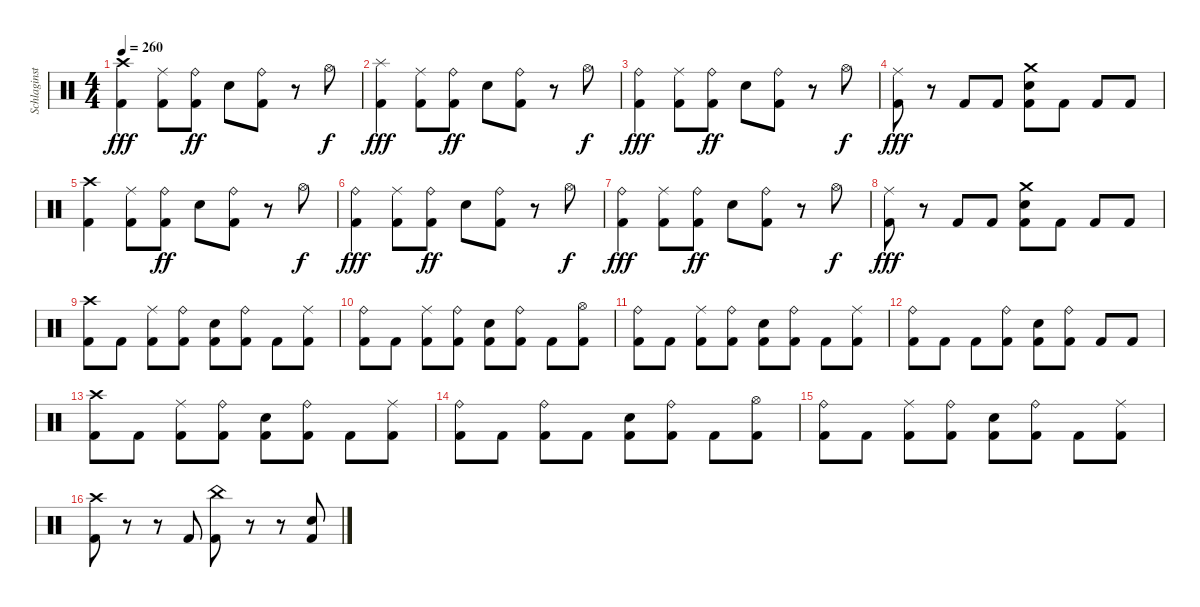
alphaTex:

\track ("Schlaginstrumente - Auswahl" "Schlaginst") {instrument percussion}
\staff {score}
\articulation defaults
\ts (4 4)
\tempo 260
\clef neutral
\ks c
("Crash high (hit)" "Kick (hit) 2").4{dy fff} ("Ride (middle)" "Kick (hit) 2").8 ("Ride (bell)" "Kick (hit) 2").8{dy ff} "Snare (hit) 2".8 ("Ride (bell)" "Kick (hit) 2").8 r.8 "Hi-Hat (open)".8{dy f} |
("Splash (hit)" "Kick (hit) 2").4{dy fff} ("Ride (middle)" "Kick (hit) 2").8 ("Ride (bell)" "Kick (hit) 2").8{dy ff} "Snare (hit) 2".8 ("Ride (bell)" "Kick (hit) 2").8 r.8 "Hi-Hat (open)".8{dy f} |
("Ride (bell)" "Kick (hit) 2").4{dy fff} ("Ride (middle)" "Kick (hit) 2").8 ("Ride (bell)" "Kick (hit) 2").8{dy ff} "Snare (hit) 2".8 ("Ride (bell)" "Kick (hit) 2").8 r.8 "Hi-Hat (open)".8{dy f} |
("Ride (middle)" "Kick (hit) 2").8{dy fff} r.8 "Kick (hit) 2".8 "Kick (hit) 2".8 ("Crash medium (hit)" "Snare (hit) 2" "Kick (hit) 2").8 "Kick (hit) 2".8 "Kick (hit) 2".8 "Kick (hit) 2".8 |
("Crash high (hit)" "Kick (hit) 2").4 ("Ride (middle)" "Kick (hit) 2").8 ("Ride (bell)" "Kick (hit) 2").8{dy ff} "Snare (hit) 2".8 ("Ride (bell)" "Kick (hit) 2").8 r.8 "Hi-Hat (open)".8{dy f} |
("Ride (bell)" "Kick (hit) 2").4{dy fff} ("Ride (middle)" "Kick (hit) 2").8 ("Ride (bell)" "Kick (hit) 2").8{dy ff} "Snare (hit) 2".8 ("Ride (bell)" "Kick (hit) 2").8 r.8 "Hi-Hat (open)".8{dy f} |
("Ride (bell)" "Kick (hit) 2").4{dy fff} ("Ride (middle)" "Kick (hit) 2").8 ("Ride (bell)" "Kick (hit) 2").8{dy ff} "Snare (hit) 2".8 ("Ride (bell)" "Kick (hit) 2").8 r.8 "Hi-Hat (open)".8{dy f} |
("Ride (middle)" "Kick (hit) 2").8{dy fff} r.8 "Kick (hit) 2".8 "Kick (hit) 2".8 ("Crash medium (hit)" "Snare (hit) 2" "Kick (hit) 2").8 "Kick (hit) 2".8 "Kick (hit) 2".8 "Kick (hit) 2".8 |
("Crash high (hit)" "Kick (hit) 2").8 "Kick (hit) 2".8 ("Ride (middle)" "Kick (hit) 2").8 ("Ride (bell)" "Kick (hit) 2").8 ("Snare (hit) 2" "Kick (hit) 2").8 ("Ride (bell)" "Kick (hit) 2").8 "Kick (hit) 2".8 ("Ride (middle)" "Kick (hit) 2").8 |
("Ride (bell)" "Kick (hit) 2").8 "Kick (hit) 2".8 ("Ride (middle)" "Kick (hit) 2").8 ("Ride (bell)" "Kick (hit) 2").8 ("Snare (hit) 2" "Kick (hit) 2").8 ("Ride (bell)" "Kick (hit) 2").8 "Kick (hit) 2".8 ("Hi-Hat (open)" "Kick (hit) 2").8 |
("Ride (bell)" "Kick (hit) 2").8 "Kick (hit) 2".8 ("Ride (middle)" "Kick (hit) 2").8 ("Ride (bell)" "Kick (hit) 2").8 ("Snare (hit) 2" "Kick (hit) 2").8 ("Ride (bell)" "Kick (hit) 2").8 "Kick (hit) 2".8 ("Ride (middle)" "Kick (hit) 2").8 |
("Ride (bell)" "Kick (hit) 2").8 "Kick (hit) 2".8 "Kick (hit) 2".8 ("Ride (bell)" "Kick (hit) 2").8 ("Snare (hit) 2" "Kick (hit) 2").8 ("Ride (bell)" "Kick (hit) 2").8 "Kick (hit) 2".8 "Kick (hit) 2".8 |
("Crash high (hit)" "Kick (hit) 2").8 "Kick (hit) 2".8 ("Ride (middle)" "Kick (hit) 2").8 ("Ride (bell)" "Kick (hit) 2").8 ("Snare (hit) 2" "Kick (hit) 2").8 ("Ride (bell)" "Kick (hit) 2").8 "Kick (hit) 2".8 ("Ride (middle)" "Kick (hit) 2").8 |
("Ride (bell)" "Kick (hit) 2").8 "Kick (hit) 2".8 ("Ride (bell)" "Kick (hit) 2").8 "Kick (hit) 2".8 ("Snare (hit) 2" "Kick (hit) 2").8 ("Ride (bell)" "Kick (hit) 2").8 "Kick (hit) 2".8 ("Hi-Hat (open)" "Kick (hit) 2").8 |
("Ride (bell)" "Kick (hit) 2").8 "Kick (hit) 2".8 ("Ride (middle)" "Kick (hit) 2").8 ("Ride (bell)" "Kick (hit) 2").8 ("Snare (hit) 2" "Kick (hit) 2").8 ("Ride (bell)" "Kick (hit) 2").8 "Kick (hit) 2".8 ("Ride (middle)" "Kick (hit) 2").8 |
("Crash high (hit)" "Kick (hit) 2").8 r.8 r.8 "Kick (hit) 2".8 ("China (hit)" "Kick (hit) 2").8 r.8 r.8 ("Snare (hit) 2" "Kick (hit) 2").8
